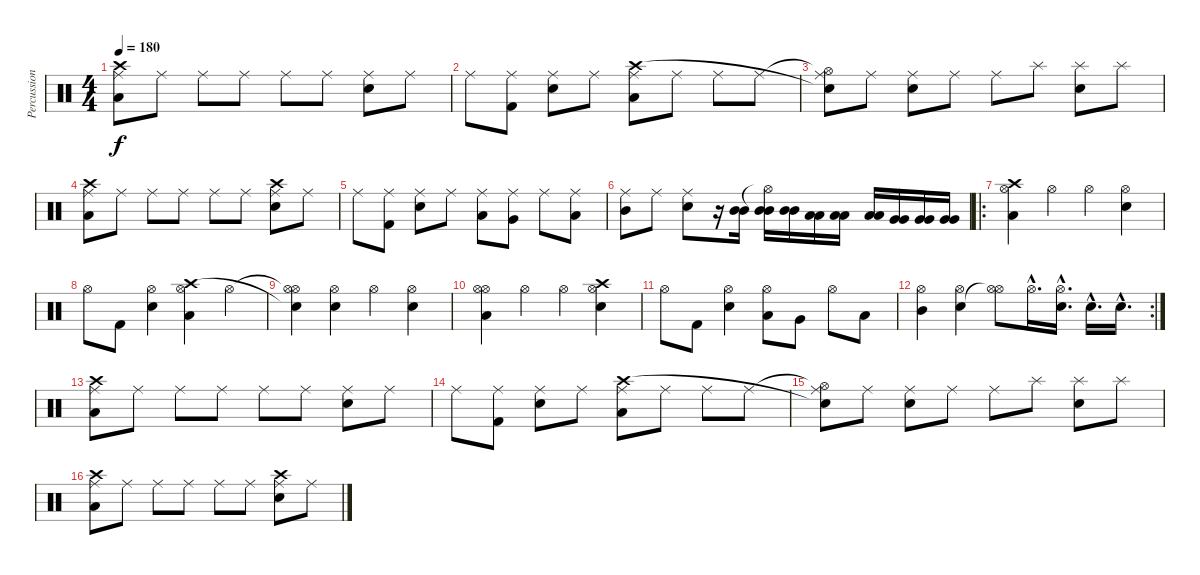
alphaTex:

\track ("Percussions" "Percussion") {instrument percussion}
\staff {score}
\articulation defaults
\ts (4 4)
\tempo 180
\clef neutral
\ks c
("Low Tom (hit)" "Crash high (hit)" "Ride (middle)").8{dy f} "Ride (middle)".8 "Ride (middle)".8 "Ride (middle)".8 "Ride (middle)".8 "Ride (middle)".8 ("Snare (hit) 2" "Ride (middle)").8 "Ride (middle)".8 |
"Ride (middle)".8 ("Kick (hit) 2" "Ride (middle)").8 ("Snare (hit) 2" "Ride (middle)").8 "Ride (middle)".8 ("Low Tom (hit)" "Crash high (hit)" "Ride (middle)").8 "Ride (middle)".8 "Ride (middle)".8 "Ride (middle)".8 |
("Hi-Hat (open)"{t} "Snare (hit)"{t} "Ride (middle)").8 "Ride (middle)".8 ("Snare (hit) 2" "Ride (middle)").8 "Ride (middle)".8 "Ride (middle)".8 "Splash (hit)".8 ("Snare (hit) 2" "Splash (hit)").8 "Splash (hit)".8 |
("Low Tom (hit)" "Crash high (hit)" "Ride (middle)").8 "Ride (middle)".8 "Ride (middle)".8 "Ride (middle)".8 "Ride (middle)".8 "Ride (middle)".8 ("Snare (hit) 2" "Crash high (hit)" "Ride (middle)").8 "Ride (middle)".8 |
"Ride (middle)".8 ("Kick (hit) 2" "Ride (middle)").8 ("Snare (hit) 2" "Ride (middle)").8 "Ride (middle)".8 ("Low Tom (hit)" "Ride (middle)").8 ("Very Low Tom (hit)" "Ride (middle)").8 "Ride (middle)".8 ("Low Tom (hit)" "Ride (middle)").8 |
("Mid Tom (hit)" "Ride (middle)").8 "Ride (middle)".8 ("Snare (hit) 2" "Ride (middle)").8 r.16 ("Mid Tom (hit)" "Mid Tom (hit)").16 ("Hi-Hat (open)"{t} "Mid Tom (hit)" "Mid Tom (hit)").16 ("Mid Tom (hit)" "Mid Tom (hit)").16 ("Low Tom (hit)" "Low Tom (hit)").16 ("Low Tom (hit)" "Low Tom (hit)").16 ("Low Tom (hit)" "Low Tom (hit)").16 ("Very Low Tom (hit)" "Very Low Tom (hit)").16 ("Very Low Tom (hit)" "Very Low Tom (hit)").16 ("Very Low Tom (hit)" "Very Low Tom (hit)").16 |
\ro
("Low Tom (hit)" "Crash high (hit)" "Hi-Hat (open)").4 "Hi-Hat (open)".4 "Hi-Hat (open)".4 ("Snare (hit) 2" "Hi-Hat (open)").4 |
"Hi-Hat (open)".8 "Kick (hit) 2".8 ("Snare (hit) 2" "Hi-Hat (open)").4 ("Low Tom (hit)" "Crash high (hit)" "Hi-Hat (open)").4 "Hi-Hat (open)".4 |
("Hi-Hat (open)"{t} "Snare (hit)"{t} "Hi-Hat (open)").4 ("Snare (hit) 2" "Hi-Hat (open)").4 "Hi-Hat (open)".4 ("Snare (hit) 2" "Hi-Hat (open)").4 |
("Low Tom (hit)" "Hi-Hat (open)" "Hi-Hat (open)").4 "Hi-Hat (open)".4 "Hi-Hat (open)".4 ("Snare (hit) 2" "Crash high (hit)" "Hi-Hat (open)").4 |
"Hi-Hat (open)".8 "Kick (hit) 2".8 ("Snare (hit) 2" "Hi-Hat (open)").4 ("Low Tom (hit)" "Hi-Hat (open)").8 "Very Low Tom (hit)".8 "Hi-Hat (open)".8 "Low Tom (hit)".8 |
\rc 2
("Mid Tom (hit)" "Hi-Hat (open)").4 ("Snare (hit) 2" "Hi-Hat (open)").4 ("Hi-Hat (open)"{t} "Hi-Hat (open)").8 "Hi-Hat (open)"{hac}.16{d} ("Snare (hit) 2"{hac} "Hi-Hat (open)"{hac}).16{d} "Snare (hit) 2"{hac}.16{d} "Snare (hit) 2"{hac}.16{d} |
("Low Tom (hit)" "Crash high (hit)" "Ride (middle)").8 "Ride (middle)".8 "Ride (middle)".8 "Ride (middle)".8 "Ride (middle)".8 "Ride (middle)".8 ("Snare (hit) 2" "Ride (middle)").8 "Ride (middle)".8 |
"Ride (middle)".8 ("Kick (hit) 2" "Ride (middle)").8 ("Snare (hit) 2" "Ride (middle)").8 "Ride (middle)".8 ("Low Tom (hit)" "Crash high (hit)" "Ride (middle)").8 "Ride (middle)".8 "Ride (middle)".8 "Ride (middle)".8 |
("Hi-Hat (open)"{t} "Snare (hit)"{t} "Ride (middle)").8 "Ride (middle)".8 ("Snare (hit) 2" "Ride (middle)").8 "Ride (middle)".8 "Ride (middle)".8 "Splash (hit)".8 ("Snare (hit) 2" "Splash (hit)").8 "Splash (hit)".8 |
("Low Tom (hit)" "Crash high (hit)" "Ride (middle)").8 "Ride (middle)".8 "Ride (middle)".8 "Ride (middle)".8 "Ride (middle)".8 "Ride (middle)".8 ("Snare (hit) 2" "Crash high (hit)" "Ride (middle)").8 "Ride (middle)".8
